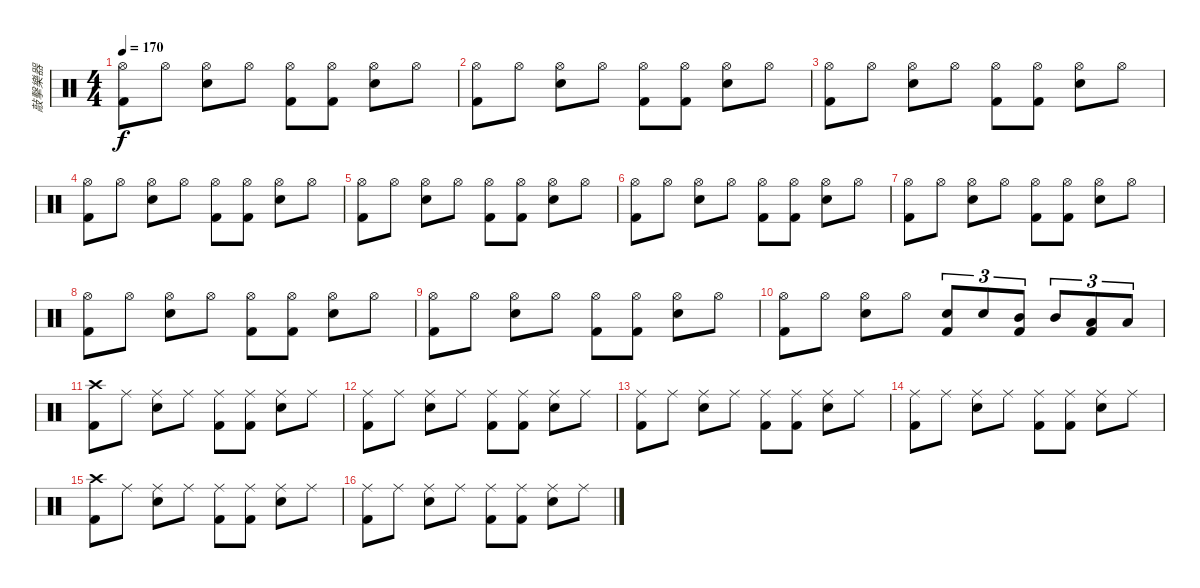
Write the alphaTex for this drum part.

\track ("敲擊樂器" "敲擊樂器") {instrument percussion}
\staff {score}
\articulation defaults
\ts (4 4)
\tempo 170
\clef neutral
\ks c
("Hi-Hat (open)" "Kick (hit) 2").8{dy f} "Hi-Hat (open)".8 ("Hi-Hat (open)" "Snare (hit) 2").8 "Hi-Hat (open)".8 ("Hi-Hat (open)" "Kick (hit) 2").8 ("Hi-Hat (open)" "Kick (hit) 2").8 ("Hi-Hat (open)" "Snare (hit) 2").8 "Hi-Hat (open)".8 |
("Hi-Hat (open)" "Kick (hit) 2").8 "Hi-Hat (open)".8 ("Hi-Hat (open)" "Snare (hit) 2").8 "Hi-Hat (open)".8 ("Hi-Hat (open)" "Kick (hit) 2").8 ("Hi-Hat (open)" "Kick (hit) 2").8 ("Hi-Hat (open)" "Snare (hit) 2").8 "Hi-Hat (open)".8 |
("Hi-Hat (open)" "Kick (hit) 2").8 "Hi-Hat (open)".8 ("Hi-Hat (open)" "Snare (hit) 2").8 "Hi-Hat (open)".8 ("Hi-Hat (open)" "Kick (hit) 2").8 ("Hi-Hat (open)" "Kick (hit) 2").8 ("Hi-Hat (open)" "Snare (hit) 2").8 "Hi-Hat (open)".8 |
("Hi-Hat (open)" "Kick (hit) 2").8 "Hi-Hat (open)".8 ("Hi-Hat (open)" "Snare (hit) 2").8 "Hi-Hat (open)".8 ("Hi-Hat (open)" "Kick (hit) 2").8 ("Hi-Hat (open)" "Kick (hit) 2").8 ("Hi-Hat (open)" "Snare (hit) 2").8 "Hi-Hat (open)".8 |
("Hi-Hat (open)" "Kick (hit) 2").8 "Hi-Hat (open)".8 ("Hi-Hat (open)" "Snare (hit) 2").8 "Hi-Hat (open)".8 ("Hi-Hat (open)" "Kick (hit) 2").8 ("Hi-Hat (open)" "Kick (hit) 2").8 ("Hi-Hat (open)" "Snare (hit) 2").8 "Hi-Hat (open)".8 |
("Hi-Hat (open)" "Kick (hit) 2").8 "Hi-Hat (open)".8 ("Hi-Hat (open)" "Snare (hit) 2").8 "Hi-Hat (open)".8 ("Hi-Hat (open)" "Kick (hit) 2").8 ("Hi-Hat (open)" "Kick (hit) 2").8 ("Hi-Hat (open)" "Snare (hit) 2").8 "Hi-Hat (open)".8 |
("Hi-Hat (open)" "Kick (hit) 2").8 "Hi-Hat (open)".8 ("Hi-Hat (open)" "Snare (hit) 2").8 "Hi-Hat (open)".8 ("Hi-Hat (open)" "Kick (hit) 2").8 ("Hi-Hat (open)" "Kick (hit) 2").8 ("Hi-Hat (open)" "Snare (hit) 2").8 "Hi-Hat (open)".8 |
("Hi-Hat (open)" "Kick (hit) 2").8 "Hi-Hat (open)".8 ("Hi-Hat (open)" "Snare (hit) 2").8 "Hi-Hat (open)".8 ("Hi-Hat (open)" "Kick (hit) 2").8 ("Hi-Hat (open)" "Kick (hit) 2").8 ("Hi-Hat (open)" "Snare (hit) 2").8 "Hi-Hat (open)".8 |
("Hi-Hat (open)" "Kick (hit) 2").8 "Hi-Hat (open)".8 ("Hi-Hat (open)" "Snare (hit) 2").8 "Hi-Hat (open)".8 ("Hi-Hat (open)" "Kick (hit) 2").8 ("Hi-Hat (open)" "Kick (hit) 2").8 ("Hi-Hat (open)" "Snare (hit) 2").8 "Hi-Hat (open)".8 |
("Hi-Hat (open)" "Kick (hit) 2").8 "Hi-Hat (open)".8 ("Hi-Hat (open)" "Snare (hit) 2").8 "Hi-Hat (open)".8 ("Snare (hit) 2" "Kick (hit) 2").8{tu (3 2)} "Snare (hit) 2".8{tu (3 2)} ("Mid Tom (hit)" "Kick (hit) 2").8{tu (3 2)} "Mid Tom (hit)".8{tu (3 2)} ("Low Tom (hit)" "Kick (hit) 2").8{tu (3 2)} "Low Tom (hit)".8{tu (3 2)} |
("Crash high (hit)" "Kick (hit) 2").8 "Ride (middle)".8 ("Ride (middle)" "Snare (hit) 2").8 "Ride (middle)".8 ("Ride (middle)" "Kick (hit) 2").8 ("Ride (middle)" "Kick (hit) 2").8 ("Ride (middle)" "Snare (hit) 2").8 "Ride (middle)".8 |
("Ride (middle)" "Kick (hit) 2").8 "Ride (middle)".8 ("Ride (middle)" "Snare (hit) 2").8 "Ride (middle)".8 ("Ride (middle)" "Kick (hit) 2").8 ("Ride (middle)" "Kick (hit) 2").8 ("Ride (middle)" "Snare (hit) 2").8 "Ride (middle)".8 |
("Ride (middle)" "Kick (hit) 2").8 "Ride (middle)".8 ("Ride (middle)" "Snare (hit) 2").8 "Ride (middle)".8 ("Ride (middle)" "Kick (hit) 2").8 ("Ride (middle)" "Kick (hit) 2").8 ("Ride (middle)" "Snare (hit) 2").8 "Ride (middle)".8 |
("Ride (middle)" "Kick (hit) 2").8 "Ride (middle)".8 ("Ride (middle)" "Snare (hit) 2").8 "Ride (middle)".8 ("Ride (middle)" "Kick (hit) 2").8 ("Ride (middle)" "Kick (hit) 2").8 ("Ride (middle)" "Snare (hit) 2").8 "Ride (middle)".8 |
("Crash high (hit)" "Kick (hit) 2").8 "Ride (middle)".8 ("Ride (middle)" "Snare (hit) 2").8 "Ride (middle)".8 ("Ride (middle)" "Kick (hit) 2").8 ("Ride (middle)" "Kick (hit) 2").8 ("Ride (middle)" "Snare (hit) 2").8 "Ride (middle)".8 |
("Ride (middle)" "Kick (hit) 2").8 "Ride (middle)".8 ("Ride (middle)" "Snare (hit) 2").8 "Ride (middle)".8 ("Ride (middle)" "Kick (hit) 2").8 ("Ride (middle)" "Kick (hit) 2").8 ("Ride (middle)" "Snare (hit) 2").8 "Ride (middle)".8
